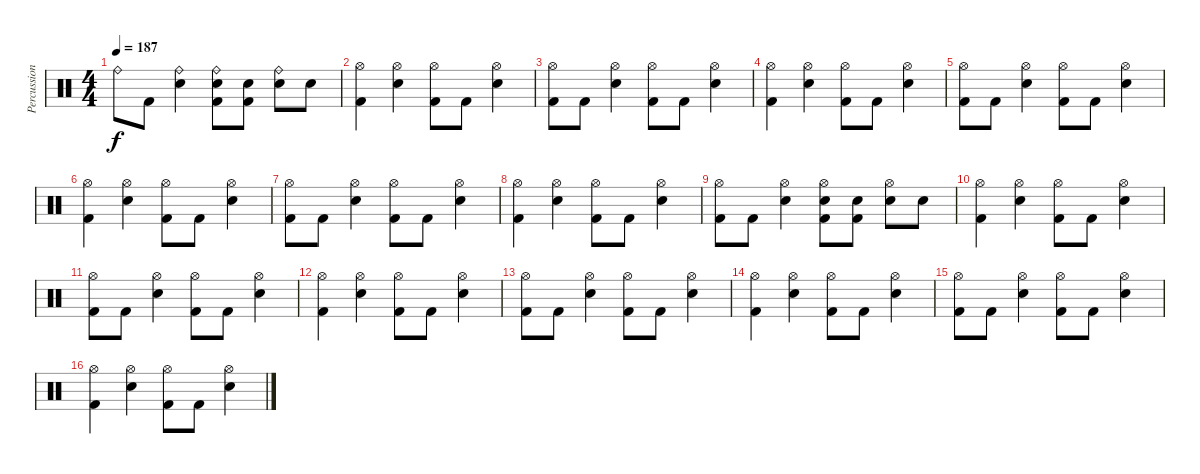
\track ("Percussion" "Percussion") {instrument percussion}
\staff {score}
\articulation defaults
\ts (4 4)
\tempo 187
\clef neutral
\ks c "Ride (bell)".8{dy f} "Kick (hit) 2".8
("Ride (bell)" "Snare (hit) 2").4 ("Ride (bell)" "Snare (hit) 2" "Kick (hit) 2").8 ("Snare (hit) 2" "Kick (hit) 2").8 ("Ride (bell)" "Snare (hit) 2").8 "Snare (hit) 2".8 |
("Hi-Hat (open)" "Kick (hit) 2").4 ("Hi-Hat (open)" "Snare (hit) 2").4 ("Hi-Hat (open)" "Kick (hit) 2").8 "Kick (hit) 2".8 ("Hi-Hat (open)" "Snare (hit) 2").4 |
("Hi-Hat (open)" "Kick (hit) 2").8 "Kick (hit) 2".8 ("Hi-Hat (open)" "Snare (hit) 2").4 ("Hi-Hat (open)" "Kick (hit) 2").8 "Kick (hit) 2".8 ("Hi-Hat (open)" "Snare (hit) 2").4 |
("Hi-Hat (open)" "Kick (hit) 2").4 ("Hi-Hat (open)" "Snare (hit) 2").4 ("Hi-Hat (open)" "Kick (hit) 2").8 "Kick (hit) 2".8 ("Hi-Hat (open)" "Snare (hit) 2").4 |
("Hi-Hat (open)" "Kick (hit) 2").8 "Kick (hit) 2".8 ("Hi-Hat (open)" "Snare (hit) 2").4 ("Hi-Hat (open)" "Kick (hit) 2").8 "Kick (hit) 2".8 ("Hi-Hat (open)" "Snare (hit) 2").4 |
("Hi-Hat (open)" "Kick (hit) 2").4 ("Hi-Hat (open)" "Snare (hit) 2").4 ("Hi-Hat (open)" "Kick (hit) 2").8 "Kick (hit) 2".8 ("Hi-Hat (open)" "Snare (hit) 2").4 |
("Hi-Hat (open)" "Kick (hit) 2").8 "Kick (hit) 2".8 ("Hi-Hat (open)" "Snare (hit) 2").4 ("Hi-Hat (open)" "Kick (hit) 2").8 "Kick (hit) 2".8 ("Hi-Hat (open)" "Snare (hit) 2").4 |
("Hi-Hat (open)" "Kick (hit) 2").4 ("Hi-Hat (open)" "Snare (hit) 2").4 ("Hi-Hat (open)" "Kick (hit) 2").8 "Kick (hit) 2".8 ("Hi-Hat (open)" "Snare (hit) 2").4 |
("Hi-Hat (open)" "Kick (hit) 2").8 "Kick (hit) 2".8 ("Hi-Hat (open)" "Snare (hit) 2").4 ("Hi-Hat (open)" "Snare (hit) 2" "Kick (hit) 2").8 ("Snare (hit) 2" "Kick (hit) 2").8 ("Hi-Hat (open)" "Snare (hit) 2").8 "Snare (hit) 2".8 |
("Hi-Hat (open)" "Kick (hit) 2").4 ("Hi-Hat (open)" "Snare (hit) 2").4 ("Hi-Hat (open)" "Kick (hit) 2").8 "Kick (hit) 2".8 ("Hi-Hat (open)" "Snare (hit) 2").4 |
("Hi-Hat (open)" "Kick (hit) 2").8 "Kick (hit) 2".8 ("Hi-Hat (open)" "Snare (hit) 2").4 ("Hi-Hat (open)" "Kick (hit) 2").8 "Kick (hit) 2".8 ("Hi-Hat (open)" "Snare (hit) 2").4 |
("Hi-Hat (open)" "Kick (hit) 2").4 ("Hi-Hat (open)" "Snare (hit) 2").4 ("Hi-Hat (open)" "Kick (hit) 2").8 "Kick (hit) 2".8 ("Hi-Hat (open)" "Snare (hit) 2").4 |
("Hi-Hat (open)" "Kick (hit) 2").8 "Kick (hit) 2".8 ("Hi-Hat (open)" "Snare (hit) 2").4 ("Hi-Hat (open)" "Kick (hit) 2").8 "Kick (hit) 2".8 ("Hi-Hat (open)" "Snare (hit) 2").4 |
("Hi-Hat (open)" "Kick (hit) 2").4 ("Hi-Hat (open)" "Snare (hit) 2").4 ("Hi-Hat (open)" "Kick (hit) 2").8 "Kick (hit) 2".8 ("Hi-Hat (open)" "Snare (hit) 2").4 |
("Hi-Hat (open)" "Kick (hit) 2").8 "Kick (hit) 2".8 ("Hi-Hat (open)" "Snare (hit) 2").4 ("Hi-Hat (open)" "Kick (hit) 2").8 "Kick (hit) 2".8 ("Hi-Hat (open)" "Snare (hit) 2").4 |
("Hi-Hat (open)" "Kick (hit) 2").4 ("Hi-Hat (open)" "Snare (hit) 2").4 ("Hi-Hat (open)" "Kick (hit) 2").8 "Kick (hit) 2".8 ("Hi-Hat (open)" "Snare (hit) 2").4
